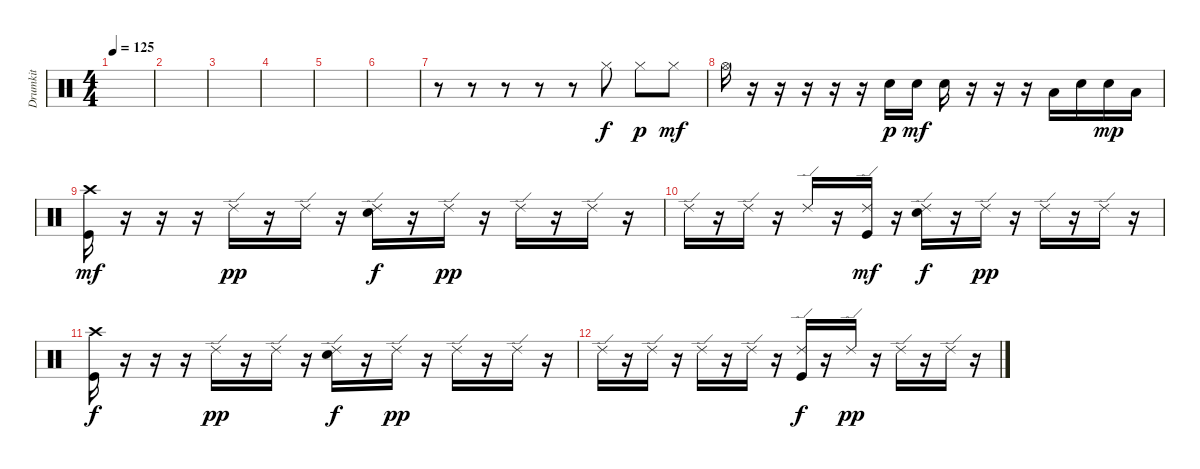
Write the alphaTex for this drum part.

\track ("Drumkit" "Drumkit") {instrument percussion}
\staff {score}
\articulation defaults
\ts (4 4)
\tempo 125
\clef neutral
\ks c
|
|
|
|
|
|
r.8 r.8 r.8 r.8 r.8 "Hi-Hat (closed)".8 "Hi-Hat (closed)".8{dy p} "Hi-Hat (closed)".8{dy mf} |
"Hi-Hat (open)".16 r.16 r.16 r.16 r.16 r.16 "Snare (hit) 2".16{dy p} "Snare (hit) 2".16{dy mf} "Snare (hit) 2".16 r.16 r.16 r.16 "Low Tom (hit)".16 "Snare (hit) 2".16 "Snare (hit) 2".16{dy mp} "Low Floor Tom (hit)".16 |
("Kick (hit)" "Crash high (hit)").16{dy mf} r.16 r.16 r.16 "Ride (edge) 2".16{dy pp} r.16 "Ride (edge) 2".16 r.16 ("Ride (edge) 2" "Snare (hit) 2").16{dy f} r.16 "Ride (edge) 2".16{dy pp} r.16 "Ride (edge) 2".16 r.16 "Ride (edge) 2".16 r.16 |
"Ride (edge) 2".16 r.16 "Ride (edge) 2".16 r.16 "Ride (edge) 2".16 r.16 ("Kick (hit)" "Ride (edge) 2").16{dy mf} r.16 ("Ride (edge) 2" "Snare (hit) 2").16{dy f} r.16 "Ride (edge) 2".16{dy pp} r.16 "Ride (edge) 2".16 r.16 "Ride (edge) 2".16 r.16 |
("Kick (hit)" "Crash high (hit)").16{dy f} r.16 r.16 r.16 "Ride (edge) 2".16{dy pp} r.16 "Ride (edge) 2".16 r.16 ("Ride (edge) 2" "Snare (hit) 2").16{dy f} r.16 "Ride (edge) 2".16{dy pp} r.16 "Ride (edge) 2".16 r.16 "Ride (edge) 2".16 r.16 |
"Ride (edge) 2".16 r.16 "Ride (edge) 2".16 r.16 "Ride (edge) 2".16 r.16 "Ride (edge) 2".16 r.16 ("Ride (edge) 2" "Kick (hit)").16{dy f} r.16 "Ride (edge) 2".16{dy pp} r.16 "Ride (edge) 2".16 r.16 "Ride (edge) 2".16 r.16
